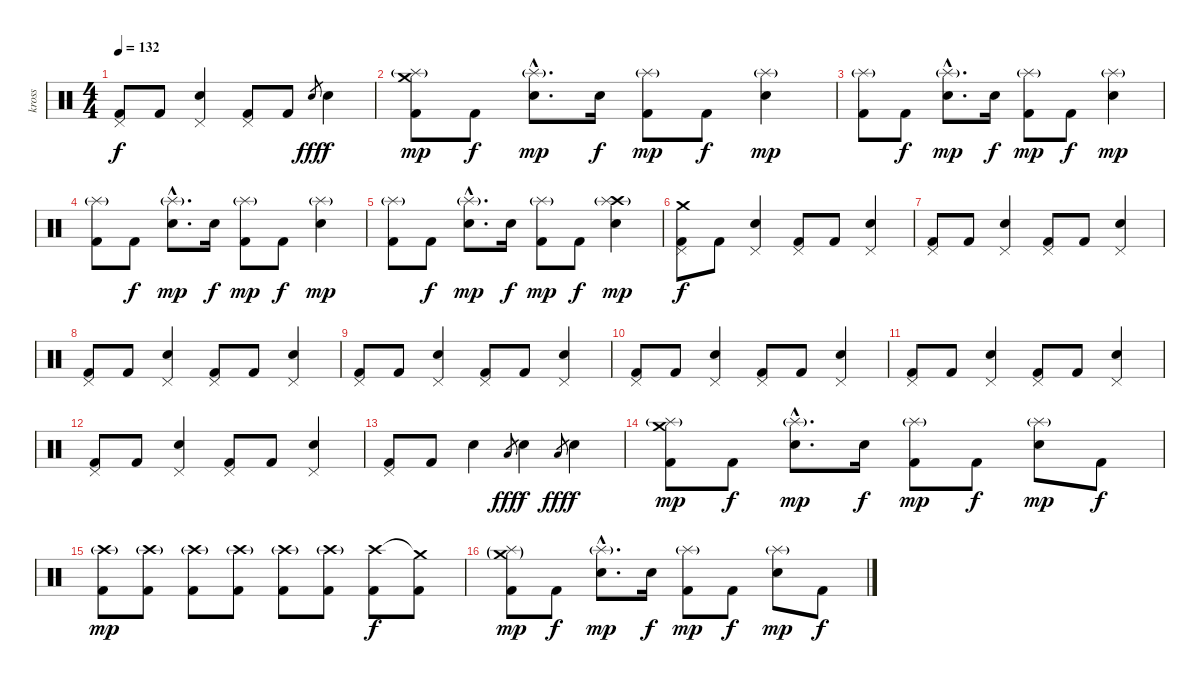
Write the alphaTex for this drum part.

\track ("kross" "kross") {instrument percussion}
\staff {score}
\articulation defaults
\ts (4 4)
\tempo 132
\clef neutral
\ks c
("Pedal Hi-Hat (hit)" "Kick (hit) 2").8{dy f} "Kick (hit) 2".8 ("Pedal Hi-Hat (hit)" "Electric Snare (hit)").4 ("Pedal Hi-Hat (hit)" "Kick (hit) 2").8 "Kick (hit) 2".8 "Electric Snare (hit)".8{gr dy fff} "Electric Snare (hit)".4{dy f} |
("Crash medium (hit)" "Splash (hit)"{g} "Kick (hit) 2").8{dy mp} "Kick (hit) 2".8{dy f} ("Splash (hit)"{g hac} "Electric Snare (hit)"{hac}).8{d dy mp} "Electric Snare (hit)".16{dy f} ("Splash (hit)"{g} "Kick (hit) 2").8{dy mp} "Kick (hit) 2".8{dy f} ("Splash (hit)"{g} "Electric Snare (hit)").4{dy mp} |
("Splash (hit)"{g} "Kick (hit) 2").8 "Kick (hit) 2".8{dy f} ("Splash (hit)"{g hac} "Electric Snare (hit)"{hac}).8{d dy mp} "Electric Snare (hit)".16{dy f} ("Splash (hit)"{g} "Kick (hit) 2").8{dy mp} "Kick (hit) 2".8{dy f} ("Splash (hit)"{g} "Electric Snare (hit)").4{dy mp} |
("Splash (hit)"{g} "Kick (hit) 2").8 "Kick (hit) 2".8{dy f} ("Splash (hit)"{g hac} "Electric Snare (hit)"{hac}).8{d dy mp} "Electric Snare (hit)".16{dy f} ("Splash (hit)"{g} "Kick (hit) 2").8{dy mp} "Kick (hit) 2".8{dy f} ("Splash (hit)"{g} "Electric Snare (hit)").4{dy mp} |
("Splash (hit)"{g} "Kick (hit) 2").8 "Kick (hit) 2".8{dy f} ("Splash (hit)"{g hac} "Electric Snare (hit)"{hac}).8{d dy mp} "Electric Snare (hit)".16{dy f} ("Splash (hit)"{g} "Kick (hit) 2").8{dy mp} "Kick (hit) 2".8{dy f} ("Crash high (hit)" "Splash (hit)"{g} "Electric Snare (hit)").4{dy mp} |
("Crash medium (hit)" "Pedal Hi-Hat (hit)" "Kick (hit) 2").8{dy f} "Kick (hit) 2".8 ("Pedal Hi-Hat (hit)" "Electric Snare (hit)").4 ("Pedal Hi-Hat (hit)" "Kick (hit) 2").8 "Kick (hit) 2".8 ("Pedal Hi-Hat (hit)" "Electric Snare (hit)").4 |
("Pedal Hi-Hat (hit)" "Kick (hit) 2").8 "Kick (hit) 2".8 ("Pedal Hi-Hat (hit)" "Electric Snare (hit)").4 ("Pedal Hi-Hat (hit)" "Kick (hit) 2").8 "Kick (hit) 2".8 ("Pedal Hi-Hat (hit)" "Electric Snare (hit)").4 |
("Pedal Hi-Hat (hit)" "Kick (hit) 2").8 "Kick (hit) 2".8 ("Pedal Hi-Hat (hit)" "Electric Snare (hit)").4 ("Pedal Hi-Hat (hit)" "Kick (hit) 2").8 "Kick (hit) 2".8 ("Pedal Hi-Hat (hit)" "Electric Snare (hit)").4 |
("Pedal Hi-Hat (hit)" "Kick (hit) 2").8 "Kick (hit) 2".8 ("Pedal Hi-Hat (hit)" "Electric Snare (hit)").4 ("Pedal Hi-Hat (hit)" "Kick (hit) 2").8 "Kick (hit) 2".8 ("Pedal Hi-Hat (hit)" "Electric Snare (hit)").4 |
("Pedal Hi-Hat (hit)" "Kick (hit) 2").8 "Kick (hit) 2".8 ("Pedal Hi-Hat (hit)" "Electric Snare (hit)").4 ("Pedal Hi-Hat (hit)" "Kick (hit) 2").8 "Kick (hit) 2".8 ("Pedal Hi-Hat (hit)" "Electric Snare (hit)").4 |
("Pedal Hi-Hat (hit)" "Kick (hit) 2").8 "Kick (hit) 2".8 ("Pedal Hi-Hat (hit)" "Electric Snare (hit)").4 ("Pedal Hi-Hat (hit)" "Kick (hit) 2").8 "Kick (hit) 2".8 ("Pedal Hi-Hat (hit)" "Electric Snare (hit)").4 |
("Pedal Hi-Hat (hit)" "Kick (hit) 2").8 "Kick (hit) 2".8 ("Pedal Hi-Hat (hit)" "Electric Snare (hit)").4 ("Pedal Hi-Hat (hit)" "Kick (hit) 2").8 "Kick (hit) 2".8 ("Pedal Hi-Hat (hit)" "Electric Snare (hit)").4 |
("Pedal Hi-Hat (hit)" "Kick (hit) 2").8 "Kick (hit) 2".8 "Electric Snare (hit)".4 "Low Floor Tom (hit)".8{gr dy fff} "Electric Snare (hit)".4{dy f} "Low Floor Tom (hit)".8{gr dy fff} "Electric Snare (hit)".4{dy f} |
("Crash medium (hit)" "Splash (hit)"{g} "Kick (hit) 2").8{dy mp} "Kick (hit) 2".8{dy f} ("Splash (hit)"{g hac} "Electric Snare (hit)"{hac}).8{d dy mp} "Electric Snare (hit)".16{dy f} ("Splash (hit)"{g} "Kick (hit) 2").8{dy mp} "Kick (hit) 2".8{dy f} ("Splash (hit)"{g} "Electric Snare (hit)").8{dy mp} "Kick (hit) 2".8{dy f} |
("Crash high (hit)"{g} "Kick (hit) 2").8{dy mp} ("Crash high (hit)"{g} "Kick (hit) 2").8 ("Crash high (hit)"{g} "Kick (hit) 2").8 ("Crash high (hit)"{g} "Kick (hit) 2").8 ("Crash high (hit)"{g} "Kick (hit) 2").8 ("Crash high (hit)"{g} "Kick (hit) 2").8 ("Crash high (hit)" "Kick (hit) 2").8{dy f} ("Crash medium (hit)"{t} "Kick (hit) 2").8 |
("Crash medium (hit)"{g} "Splash (hit)"{g} "Kick (hit) 2").8{dy mp} "Kick (hit) 2".8{dy f} ("Splash (hit)"{g hac} "Electric Snare (hit)"{hac}).8{d dy mp} "Electric Snare (hit)".16{dy f} ("Splash (hit)"{g} "Kick (hit) 2").8{dy mp} "Kick (hit) 2".8{dy f} ("Splash (hit)"{g} "Electric Snare (hit)").8{dy mp} "Kick (hit) 2".8{dy f}
